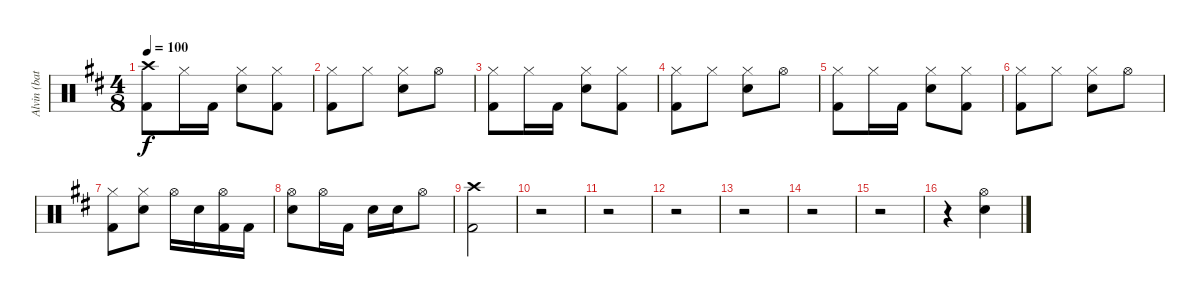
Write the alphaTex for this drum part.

\track ("Alvin (bateria)" "Alvin (bat") {instrument percussion}
\staff {score}
\articulation defaults
\ts (4 8)
\tempo 100
\clef neutral
\ks bminor
("Crash high (hit)" "Kick (hit) 2").8{dy f} "Hi-Hat (closed)".16 "Kick (hit) 2".16 ("Hi-Hat (closed)" "Electric Snare (hit)").8 ("Hi-Hat (closed)" "Kick (hit) 2").8 |
("Hi-Hat (closed)" "Kick (hit) 2").8 "Hi-Hat (closed)".8 ("Hi-Hat (closed)" "Electric Snare (hit)").8 "Hi-Hat (open)".8 |
("Hi-Hat (closed)" "Kick (hit) 2").8 "Hi-Hat (closed)".16 "Kick (hit) 2".16 ("Hi-Hat (closed)" "Electric Snare (hit)").8 ("Hi-Hat (closed)" "Kick (hit) 2").8 |
("Hi-Hat (closed)" "Kick (hit) 2").8 "Hi-Hat (closed)".8 ("Hi-Hat (closed)" "Electric Snare (hit)").8 "Hi-Hat (open)".8 |
("Hi-Hat (closed)" "Kick (hit) 2").8 "Hi-Hat (closed)".16 "Kick (hit) 2".16 ("Hi-Hat (closed)" "Electric Snare (hit)").8 ("Hi-Hat (closed)" "Kick (hit) 2").8 |
("Hi-Hat (closed)" "Kick (hit) 2").8 "Hi-Hat (closed)".8 ("Hi-Hat (closed)" "Electric Snare (hit)").8 "Hi-Hat (open)".8 |
("Hi-Hat (closed)" "Kick (hit) 2").8 ("Hi-Hat (closed)" "Electric Snare (hit)").8 "Hi-Hat (open)".16 "Electric Snare (hit)".16 ("Hi-Hat (open)" "Kick (hit) 2").16 "Kick (hit) 2".16 |
("Hi-Hat (open)" "Electric Snare (hit)").8 "Hi-Hat (open)".16 "Kick (hit) 2".16 "Electric Snare (hit)".16 "Electric Snare (hit)".16 "Hi-Hat (open)".8 |
("Crash high (hit)" "Kick (hit) 2").2 |
r.2 |
r.2 |
r.2 |
r.2 |
r.2 |
r.2 |
r.4 ("Hi-Hat (open)" "Electric Snare (hit)").4
